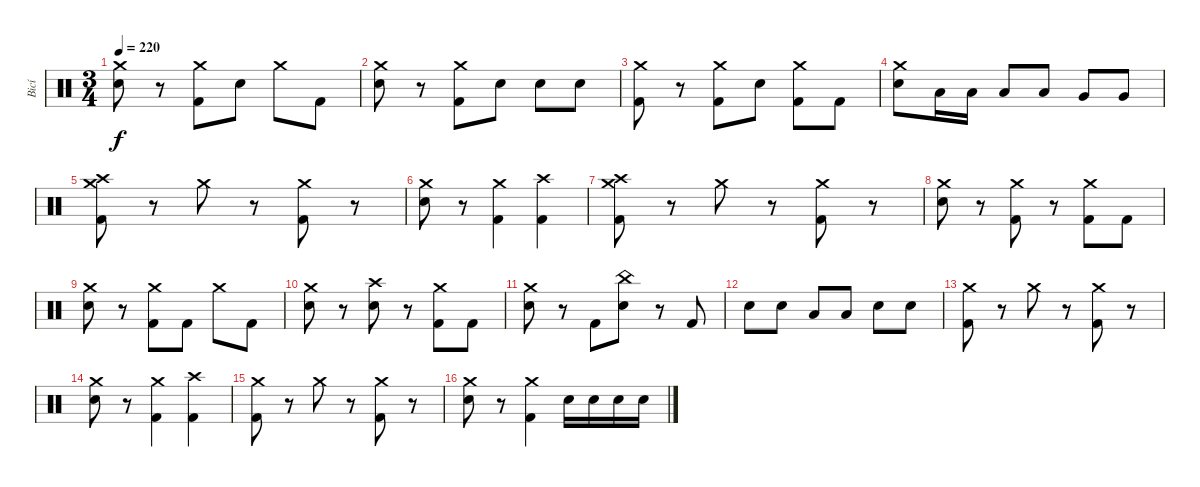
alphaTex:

\track ("Bicí" "Bicí") {instrument percussion}
\staff {score}
\articulation defaults
\ts (3 4)
\tempo 220
\clef neutral
\ks c
("Crash medium (hit)" "Electric Snare (hit)").8{dy f} r.8 ("Crash medium (hit)" "Kick (hit) 2").8 "Electric Snare (hit)".8 "Crash medium (hit)".8 "Kick (hit) 2".8 |
("Crash medium (hit)" "Electric Snare (hit)").8 r.8 ("Crash medium (hit)" "Kick (hit) 2").8 "Electric Snare (hit)".8 "Electric Snare (hit)".8 "Electric Snare (hit)".8 |
("Crash medium (hit)" "Kick (hit) 2").8 r.8 ("Crash medium (hit)" "Kick (hit) 2").8 "Electric Snare (hit)".8 ("Crash medium (hit)" "Kick (hit) 2").8 "Kick (hit) 2".8 |
("Crash medium (hit)" "Electric Snare (hit)").8 "Low Tom (hit)".16 "Low Tom (hit)".16 "Low Tom (hit)".8 "Low Tom (hit)".8 "Very Low Tom (hit)".8 "Very Low Tom (hit)".8 |
("Crash medium (hit)" "Crash high (hit)" "Kick (hit) 2").8 r.8 "Crash medium (hit)".8 r.8 ("Crash medium (hit)" "Kick (hit) 2").8 r.8 |
("Crash medium (hit)" "Electric Snare (hit)").8 r.8 ("Crash medium (hit)" "Kick (hit) 2").4 ("Crash high (hit)" "Kick (hit) 2").4 |
("Crash medium (hit)" "Crash high (hit)" "Kick (hit) 2").8 r.8 "Crash medium (hit)".8 r.8 ("Crash medium (hit)" "Kick (hit) 2").8 r.8 |
("Crash medium (hit)" "Electric Snare (hit)").8 r.8 ("Crash medium (hit)" "Kick (hit) 2").8 r.8 ("Crash medium (hit)" "Kick (hit) 2").8 "Kick (hit) 2".8 |
("Crash medium (hit)" "Electric Snare (hit)").8 r.8 ("Crash medium (hit)" "Kick (hit) 2").8 "Kick (hit) 2".8 "Crash medium (hit)".8 "Kick (hit) 2".8 |
("Crash medium (hit)" "Electric Snare (hit)").8 r.8 ("Crash high (hit)" "Electric Snare (hit)").8 r.8 ("Crash medium (hit)" "Kick (hit) 2").8 "Kick (hit) 2".8 |
("Crash medium (hit)" "Electric Snare (hit)").8 r.8 "Kick (hit) 2".8 ("China (hit)" "Electric Snare (hit)").8 r.8 "Kick (hit) 2".8 |
"Electric Snare (hit)".8 "Electric Snare (hit)".8 "Low Tom (hit)".8 "Low Tom (hit)".8 "Electric Snare (hit)".8 "Electric Snare (hit)".8 |
("Crash medium (hit)" "Kick (hit) 2").8 r.8 "Crash medium (hit)".8 r.8 ("Crash medium (hit)" "Kick (hit) 2").8 r.8 |
("Crash medium (hit)" "Electric Snare (hit)").8 r.8 ("Crash medium (hit)" "Kick (hit) 2").4 ("Crash high (hit)" "Kick (hit) 2").4 |
("Crash medium (hit)" "Kick (hit) 2").8 r.8 "Crash medium (hit)".8 r.8 ("Crash medium (hit)" "Kick (hit) 2").8 r.8 |
("Crash medium (hit)" "Electric Snare (hit)").8 r.8 ("Crash medium (hit)" "Kick (hit) 2").4 "Electric Snare (hit)".16 "Electric Snare (hit)".16 "Electric Snare (hit)".16 "Electric Snare (hit)".16
